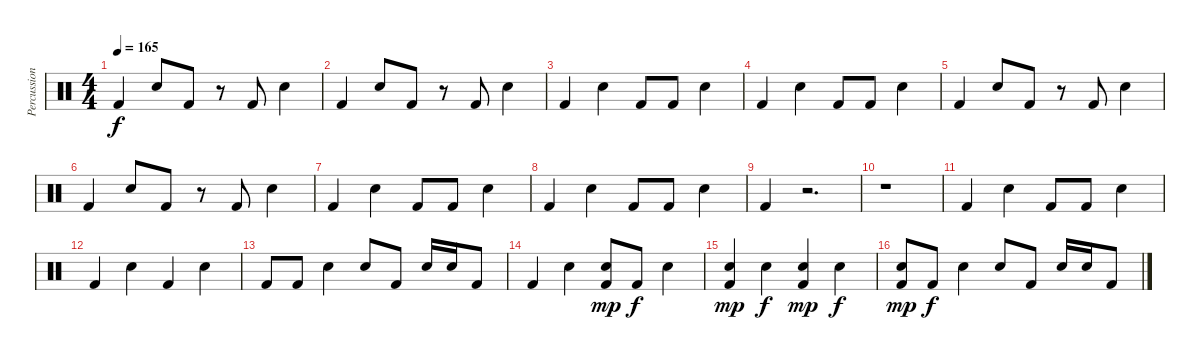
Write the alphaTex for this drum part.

\track ("Percussion" "Percussion") {instrument percussion}
\staff {score}
\articulation defaults
\ts (4 4)
\tempo 165
\clef neutral
\ks c "Kick (hit) 2".4{dy f} "Snare (hit) 2".8 "Kick (hit) 2".8
r.8 "Kick (hit) 2".8 "Snare (hit) 2".4 |
"Kick (hit) 2".4 "Snare (hit) 2".8 "Kick (hit) 2".8 r.8 "Kick (hit) 2".8 "Snare (hit) 2".4 |
"Kick (hit) 2".4 "Snare (hit) 2".4 "Kick (hit) 2".8 "Kick (hit) 2".8 "Snare (hit) 2".4 |
"Kick (hit) 2".4 "Snare (hit) 2".4 "Kick (hit) 2".8 "Kick (hit) 2".8 "Snare (hit) 2".4 |
"Kick (hit) 2".4 "Snare (hit) 2".8 "Kick (hit) 2".8 r.8 "Kick (hit) 2".8 "Snare (hit) 2".4 |
"Kick (hit) 2".4 "Snare (hit) 2".8 "Kick (hit) 2".8 r.8 "Kick (hit) 2".8 "Snare (hit) 2".4 |
"Kick (hit) 2".4 "Snare (hit) 2".4 "Kick (hit) 2".8 "Kick (hit) 2".8 "Snare (hit) 2".4 |
"Kick (hit) 2".4 "Snare (hit) 2".4 "Kick (hit) 2".8 "Kick (hit) 2".8 "Snare (hit) 2".4 |
"Kick (hit) 2".4 r.2{d} |
r.1 |
"Kick (hit) 2".4 "Snare (hit) 2".4 "Kick (hit) 2".8 "Kick (hit) 2".8 "Snare (hit) 2".4 |
"Kick (hit) 2".4 "Snare (hit) 2".4 "Kick (hit) 2".4 "Snare (hit) 2".4 |
"Kick (hit) 2".8 "Kick (hit) 2".8 "Snare (hit) 2".4 "Snare (hit) 2".8 "Kick (hit) 2".8 "Snare (hit) 2".16 "Snare (hit) 2".16 "Kick (hit) 2".8 |
"Kick (hit) 2".4 "Snare (hit) 2".4 ("Snare (hit) 2" "Kick (hit) 2").8{dy mp} "Kick (hit) 2".8{dy f} "Snare (hit) 2".4 |
("Snare (hit) 2" "Kick (hit) 2").4{dy mp} "Snare (hit) 2".4{dy f} ("Snare (hit) 2" "Kick (hit) 2").4{dy mp} "Snare (hit) 2".4{dy f} |
("Kick (hit) 2" "Snare (hit) 2").8{dy mp} "Kick (hit) 2".8{dy f} "Snare (hit) 2".4 "Snare (hit) 2".8 "Kick (hit) 2".8 "Snare (hit) 2".16 "Snare (hit) 2".16 "Kick (hit) 2".8
